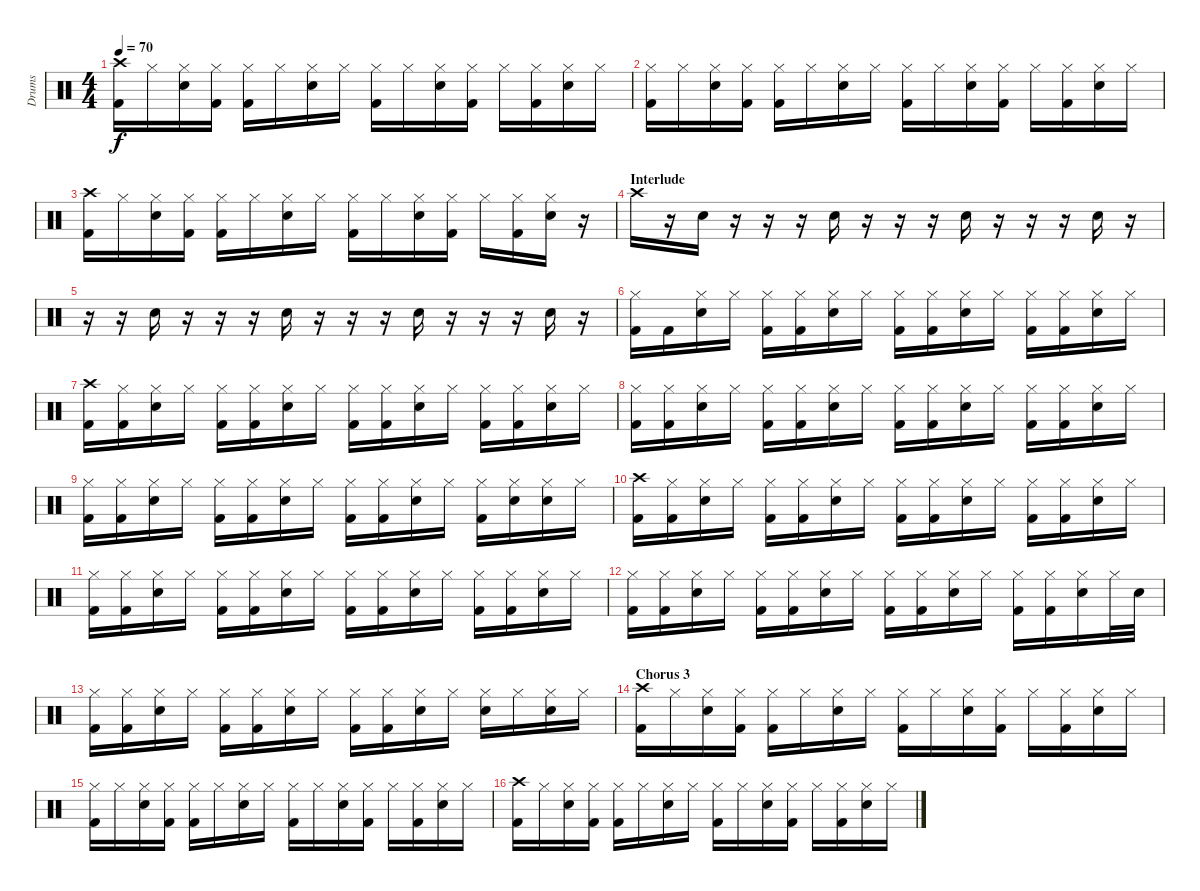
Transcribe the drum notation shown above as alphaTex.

\track ("Drums" "Drums") {instrument percussion}
\staff {score}
\articulation defaults
\ts (4 4)
\tempo 70
\clef neutral
\ks c
("Crash high (hit)" "Kick (hit) 2").16{dy f} "Hi-Hat (closed)".16 ("Hi-Hat (closed)" "Snare (hit) 2").16 ("Hi-Hat (closed)" "Kick (hit) 2").16 ("Hi-Hat (closed)" "Kick (hit) 2").16 "Hi-Hat (closed)".16 ("Hi-Hat (closed)" "Snare (hit) 2").16 "Hi-Hat (closed)".16 ("Hi-Hat (closed)" "Kick (hit) 2").16 "Hi-Hat (closed)".16 ("Hi-Hat (closed)" "Snare (hit) 2").16 ("Hi-Hat (closed)" "Kick (hit) 2").16 "Hi-Hat (closed)".16 ("Hi-Hat (closed)" "Kick (hit) 2").16 ("Hi-Hat (closed)" "Snare (hit) 2").16 "Hi-Hat (closed)".16 |
("Hi-Hat (closed)" "Kick (hit) 2").16 "Hi-Hat (closed)".16 ("Hi-Hat (closed)" "Snare (hit) 2").16 ("Hi-Hat (closed)" "Kick (hit) 2").16 ("Hi-Hat (closed)" "Kick (hit) 2").16 "Hi-Hat (closed)".16 ("Hi-Hat (closed)" "Snare (hit) 2").16 "Hi-Hat (closed)".16 ("Hi-Hat (closed)" "Kick (hit) 2").16 "Hi-Hat (closed)".16 ("Hi-Hat (closed)" "Snare (hit) 2").16 ("Hi-Hat (closed)" "Kick (hit) 2").16 "Hi-Hat (closed)".16 ("Hi-Hat (closed)" "Kick (hit) 2").16 ("Hi-Hat (closed)" "Snare (hit) 2").16 "Hi-Hat (closed)".16 |
("Crash high (hit)" "Kick (hit) 2").16 "Hi-Hat (closed)".16 ("Hi-Hat (closed)" "Snare (hit) 2").16 ("Hi-Hat (closed)" "Kick (hit) 2").16 ("Hi-Hat (closed)" "Kick (hit) 2").16 "Hi-Hat (closed)".16 ("Hi-Hat (closed)" "Snare (hit) 2").16 "Hi-Hat (closed)".16 ("Hi-Hat (closed)" "Kick (hit) 2").16 "Hi-Hat (closed)".16 ("Hi-Hat (closed)" "Snare (hit) 2").16 ("Hi-Hat (closed)" "Kick (hit) 2").16 "Hi-Hat (closed)".16 ("Hi-Hat (closed)" "Kick (hit) 2").16 ("Hi-Hat (closed)" "Snare (hit) 2").16 r.16 |
\section ("" "Interlude")
"Crash high (hit)".16 r.16 "Snare (hit) 2".16 r.16 r.16 r.16 "Snare (hit) 2".16 r.16 r.16 r.16 "Snare (hit) 2".16 r.16 r.16 r.16 "Snare (hit) 2".16 r.16 |
r.16 r.16 "Snare (hit) 2".16 r.16 r.16 r.16 "Snare (hit) 2".16 r.16 r.16 r.16 "Snare (hit) 2".16 r.16 r.16 r.16 "Snare (hit) 2".16 r.16 |
("Hi-Hat (closed)" "Kick (hit) 2").16 "Kick (hit) 2".16 ("Hi-Hat (closed)" "Snare (hit) 2").16 "Hi-Hat (closed)".16 ("Hi-Hat (closed)" "Kick (hit) 2").16 ("Hi-Hat (closed)" "Kick (hit) 2").16 ("Hi-Hat (closed)" "Snare (hit) 2").16 "Hi-Hat (closed)".16 ("Hi-Hat (closed)" "Kick (hit) 2").16 ("Hi-Hat (closed)" "Kick (hit) 2").16 ("Hi-Hat (closed)" "Snare (hit) 2").16 "Hi-Hat (closed)".16 ("Hi-Hat (closed)" "Kick (hit) 2").16 ("Hi-Hat (closed)" "Kick (hit) 2").16 ("Hi-Hat (closed)" "Snare (hit) 2").16 "Hi-Hat (closed)".16 |
("Crash high (hit)" "Kick (hit) 2").16 ("Hi-Hat (closed)" "Kick (hit) 2").16 ("Hi-Hat (closed)" "Snare (hit) 2").16 "Hi-Hat (closed)".16 ("Hi-Hat (closed)" "Kick (hit) 2").16 ("Hi-Hat (closed)" "Kick (hit) 2").16 ("Hi-Hat (closed)" "Snare (hit) 2").16 "Hi-Hat (closed)".16 ("Hi-Hat (closed)" "Kick (hit) 2").16 ("Hi-Hat (closed)" "Kick (hit) 2").16 ("Hi-Hat (closed)" "Snare (hit) 2").16 "Hi-Hat (closed)".16 ("Hi-Hat (closed)" "Kick (hit) 2").16 ("Hi-Hat (closed)" "Kick (hit) 2").16 ("Hi-Hat (closed)" "Snare (hit) 2").16 "Hi-Hat (closed)".16 |
("Hi-Hat (closed)" "Kick (hit) 2").16 ("Hi-Hat (closed)" "Kick (hit) 2").16 ("Hi-Hat (closed)" "Snare (hit) 2").16 "Hi-Hat (closed)".16 ("Hi-Hat (closed)" "Kick (hit) 2").16 ("Hi-Hat (closed)" "Kick (hit) 2").16 ("Hi-Hat (closed)" "Snare (hit) 2").16 "Hi-Hat (closed)".16 ("Hi-Hat (closed)" "Kick (hit) 2").16 ("Hi-Hat (closed)" "Kick (hit) 2").16 ("Hi-Hat (closed)" "Snare (hit) 2").16 "Hi-Hat (closed)".16 ("Hi-Hat (closed)" "Kick (hit) 2").16 ("Hi-Hat (closed)" "Kick (hit) 2").16 ("Hi-Hat (closed)" "Snare (hit) 2").16 "Hi-Hat (closed)".16 |
("Hi-Hat (closed)" "Kick (hit) 2").16 ("Hi-Hat (closed)" "Kick (hit) 2").16 ("Hi-Hat (closed)" "Snare (hit) 2").16 "Hi-Hat (closed)".16 ("Hi-Hat (closed)" "Kick (hit) 2").16 ("Hi-Hat (closed)" "Kick (hit) 2").16 ("Hi-Hat (closed)" "Snare (hit) 2").16 "Hi-Hat (closed)".16 ("Hi-Hat (closed)" "Kick (hit) 2").16 ("Hi-Hat (closed)" "Kick (hit) 2").16 ("Hi-Hat (closed)" "Snare (hit) 2").16 "Hi-Hat (closed)".16 ("Hi-Hat (closed)" "Kick (hit) 2").16 ("Hi-Hat (closed)" "Snare (hit) 2").16 ("Hi-Hat (closed)" "Snare (hit) 2").16 "Hi-Hat (closed)".16 |
("Crash high (hit)" "Kick (hit) 2").16 ("Hi-Hat (closed)" "Kick (hit) 2").16 ("Hi-Hat (closed)" "Snare (hit) 2").16 "Hi-Hat (closed)".16 ("Hi-Hat (closed)" "Kick (hit) 2").16 ("Hi-Hat (closed)" "Kick (hit) 2").16 ("Hi-Hat (closed)" "Snare (hit) 2").16 "Hi-Hat (closed)".16 ("Hi-Hat (closed)" "Kick (hit) 2").16 ("Hi-Hat (closed)" "Kick (hit) 2").16 ("Hi-Hat (closed)" "Snare (hit) 2").16 "Hi-Hat (closed)".16 ("Hi-Hat (closed)" "Kick (hit) 2").16 ("Hi-Hat (closed)" "Kick (hit) 2").16 ("Hi-Hat (closed)" "Snare (hit) 2").16 "Hi-Hat (closed)".16 |
("Hi-Hat (closed)" "Kick (hit) 2").16 ("Hi-Hat (closed)" "Kick (hit) 2").16 ("Hi-Hat (closed)" "Snare (hit) 2").16 "Hi-Hat (closed)".16 ("Hi-Hat (closed)" "Kick (hit) 2").16 ("Hi-Hat (closed)" "Kick (hit) 2").16 ("Hi-Hat (closed)" "Snare (hit) 2").16 "Hi-Hat (closed)".16 ("Hi-Hat (closed)" "Kick (hit) 2").16 ("Hi-Hat (closed)" "Kick (hit) 2").16 ("Hi-Hat (closed)" "Snare (hit) 2").16 "Hi-Hat (closed)".16 ("Hi-Hat (closed)" "Kick (hit) 2").16 ("Hi-Hat (closed)" "Kick (hit) 2").16 ("Hi-Hat (closed)" "Snare (hit) 2").16 "Hi-Hat (closed)".16 |
("Hi-Hat (closed)" "Kick (hit) 2").16 ("Hi-Hat (closed)" "Kick (hit) 2").16 ("Hi-Hat (closed)" "Snare (hit) 2").16 "Hi-Hat (closed)".16 ("Hi-Hat (closed)" "Kick (hit) 2").16 ("Hi-Hat (closed)" "Kick (hit) 2").16 ("Hi-Hat (closed)" "Snare (hit) 2").16 "Hi-Hat (closed)".16 ("Hi-Hat (closed)" "Kick (hit) 2").16 ("Hi-Hat (closed)" "Kick (hit) 2").16 ("Hi-Hat (closed)" "Snare (hit) 2").16 "Hi-Hat (closed)".16 ("Hi-Hat (closed)" "Kick (hit) 2").16 ("Hi-Hat (closed)" "Kick (hit) 2").16 ("Hi-Hat (closed)" "Snare (hit) 2").16 "Hi-Hat (closed)".32 "Snare (hit) 2".32 |
("Hi-Hat (closed)" "Kick (hit) 2").16 ("Hi-Hat (closed)" "Kick (hit) 2").16 ("Hi-Hat (closed)" "Snare (hit) 2").16 "Hi-Hat (closed)".16 ("Hi-Hat (closed)" "Kick (hit) 2").16 ("Hi-Hat (closed)" "Kick (hit) 2").16 ("Hi-Hat (closed)" "Snare (hit) 2").16 "Hi-Hat (closed)".16 ("Hi-Hat (closed)" "Kick (hit) 2").16 ("Hi-Hat (closed)" "Kick (hit) 2").16 ("Hi-Hat (closed)" "Snare (hit) 2").16 "Hi-Hat (closed)".16 ("Hi-Hat (closed)" "Snare (hit) 2").16 "Hi-Hat (closed)".16 ("Hi-Hat (closed)" "Snare (hit) 2").16 "Hi-Hat (closed)".16 |
\section ("" "Chorus 3")
("Crash high (hit)" "Kick (hit) 2").16 "Hi-Hat (closed)".16 ("Hi-Hat (closed)" "Snare (hit) 2").16 ("Hi-Hat (closed)" "Kick (hit) 2").16 ("Hi-Hat (closed)" "Kick (hit) 2").16 "Hi-Hat (closed)".16 ("Hi-Hat (closed)" "Snare (hit) 2").16 "Hi-Hat (closed)".16 ("Hi-Hat (closed)" "Kick (hit) 2").16 "Hi-Hat (closed)".16 ("Hi-Hat (closed)" "Snare (hit) 2").16 ("Hi-Hat (closed)" "Kick (hit) 2").16 "Hi-Hat (closed)".16 ("Hi-Hat (closed)" "Kick (hit) 2").16 ("Hi-Hat (closed)" "Snare (hit) 2").16 "Hi-Hat (closed)".16 |
("Hi-Hat (closed)" "Kick (hit) 2").16 "Hi-Hat (closed)".16 ("Hi-Hat (closed)" "Snare (hit) 2").16 ("Hi-Hat (closed)" "Kick (hit) 2").16 ("Hi-Hat (closed)" "Kick (hit) 2").16 "Hi-Hat (closed)".16 ("Hi-Hat (closed)" "Snare (hit) 2").16 "Hi-Hat (closed)".16 ("Hi-Hat (closed)" "Kick (hit) 2").16 "Hi-Hat (closed)".16 ("Hi-Hat (closed)" "Snare (hit) 2").16 ("Hi-Hat (closed)" "Kick (hit) 2").16 "Hi-Hat (closed)".16 ("Hi-Hat (closed)" "Kick (hit) 2").16 ("Hi-Hat (closed)" "Snare (hit) 2").16 "Hi-Hat (closed)".16 |
("Crash high (hit)" "Kick (hit) 2").16 "Hi-Hat (closed)".16 ("Hi-Hat (closed)" "Snare (hit) 2").16 ("Hi-Hat (closed)" "Kick (hit) 2").16 ("Hi-Hat (closed)" "Kick (hit) 2").16 "Hi-Hat (closed)".16 ("Hi-Hat (closed)" "Snare (hit) 2").16 "Hi-Hat (closed)".16 ("Hi-Hat (closed)" "Kick (hit) 2").16 "Hi-Hat (closed)".16 ("Hi-Hat (closed)" "Snare (hit) 2").16 ("Hi-Hat (closed)" "Kick (hit) 2").16 "Hi-Hat (closed)".16 ("Hi-Hat (closed)" "Kick (hit) 2").16 ("Hi-Hat (closed)" "Snare (hit) 2").16 "Hi-Hat (closed)".16
